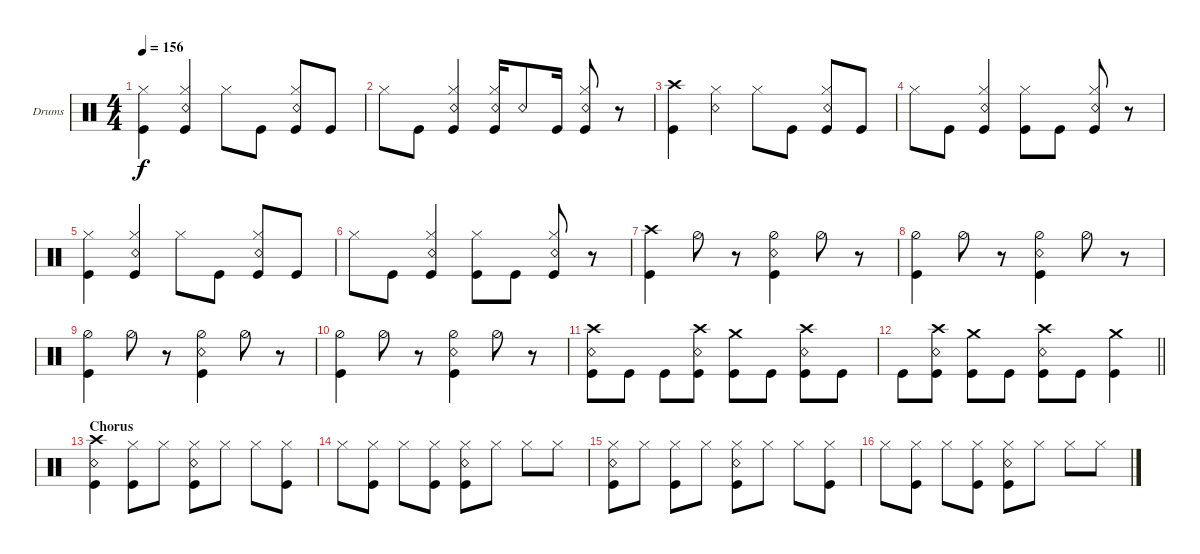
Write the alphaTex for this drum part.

\bracketExtendMode groupsimilarinstruments
\firstSystemTrackNameOrientation horizontal
\otherSystemsTrackNameOrientation horizontal
\track ("Drums" "Drums") {instrument percussion}
\staff {score}
\articulation defaults
\ts (4 4)
\tempo 156
\clef neutral
\ks c
("Kick (hit)" "Hi-Hat (closed)").4{dy f} ("Hi-Hat (closed)" "Snare (rim shot)" "Kick (hit)").4 "Hi-Hat (closed)".8 "Kick (hit)".8 ("Hi-Hat (closed)" "Snare (rim shot)" "Kick (hit)").8 "Kick (hit)".8 |
"Hi-Hat (closed)".8 "Kick (hit)".8 ("Hi-Hat (closed)" "Snare (rim shot)" "Kick (hit)").4 ("Hi-Hat (closed)" "Kick (hit)" "Snare (rim shot)").16 "Snare (rim shot)".8 "Kick (hit)".16 ("Hi-Hat (closed)" "Snare (rim shot)" "Kick (hit)").8 r.8 |
("Kick (hit)" "Crash high (hit)").4 ("Hi-Hat (closed)" "Snare (rim shot)").4 "Hi-Hat (closed)".8 "Kick (hit)".8 ("Hi-Hat (closed)" "Snare (rim shot)" "Kick (hit)").8 "Kick (hit)".8 |
"Hi-Hat (closed)".8 "Kick (hit)".8 ("Hi-Hat (closed)" "Snare (rim shot)" "Kick (hit)").4 ("Hi-Hat (closed)" "Kick (hit)").8 "Kick (hit)".8 ("Hi-Hat (closed)" "Snare (rim shot)" "Kick (hit)").8 r.8 |
("Kick (hit)" "Hi-Hat (closed)").4 ("Hi-Hat (closed)" "Snare (rim shot)" "Kick (hit)").4 "Hi-Hat (closed)".8 "Kick (hit)".8 ("Hi-Hat (closed)" "Snare (rim shot)" "Kick (hit)").8 "Kick (hit)".8 |
"Hi-Hat (closed)".8 "Kick (hit)".8 ("Hi-Hat (closed)" "Snare (rim shot)" "Kick (hit)").4 ("Hi-Hat (closed)" "Kick (hit)").8 "Kick (hit)".8 ("Hi-Hat (closed)" "Snare (rim shot)" "Kick (hit)").8 r.8 |
("Kick (hit)" "Crash high (hit)").4 "Hi-Hat (half)".8 r.8 ("Hi-Hat (half)" "Snare (rim shot)" "Kick (hit)").4 "Hi-Hat (half)".8 r.8 |
("Kick (hit)" "Hi-Hat (half)").4 "Hi-Hat (half)".8 r.8 ("Hi-Hat (half)" "Snare (rim shot)" "Kick (hit)").4 "Hi-Hat (half)".8 r.8 |
("Kick (hit)" "Hi-Hat (half)").4 "Hi-Hat (half)".8 r.8 ("Hi-Hat (half)" "Snare (rim shot)" "Kick (hit)").4 "Hi-Hat (half)".8 r.8 |
("Kick (hit)" "Hi-Hat (half)").4 "Hi-Hat (half)".8 r.8 ("Hi-Hat (half)" "Snare (rim shot)" "Kick (hit)").4 "Hi-Hat (half)".8 r.8 |
("Kick (hit)" "Snare (rim shot)" "Crash high (hit)").8 "Kick (hit)".8 "Kick (hit)".8 ("Snare (rim shot)" "Crash high (hit)" "Kick (hit)").8 ("Crash medium (hit)" "Kick (hit)").8 "Kick (hit)".8 ("Kick (hit)" "Snare (rim shot)" "Crash high (hit)").8 "Kick (hit)".8 |
\barLineRight lightlight "Kick (hit)".8
("Snare (rim shot)" "Crash high (hit)" "Kick (hit)").8 ("Crash medium (hit)" "Kick (hit)").8 "Kick (hit)".8 ("Kick (hit)" "Snare (rim shot)" "Crash high (hit)").8 "Kick (hit)".8 ("Kick (hit)" "Crash medium (hit)").4 |
\section ("" "Chorus")
("Kick (hit)" "Snare (rim shot)" "Crash high (hit)").4 ("Kick (hit)" "Hi-Hat (closed)").8 "Hi-Hat (closed)".8 ("Kick (hit)" "Snare (rim shot)" "Hi-Hat (closed)").8 "Hi-Hat (closed)".8 "Hi-Hat (closed)".8 ("Kick (hit)" "Hi-Hat (closed)").8 |
"Hi-Hat (closed)".8 ("Kick (hit)" "Hi-Hat (closed)").8 "Hi-Hat (closed)".8 ("Kick (hit)" "Hi-Hat (closed)").8 ("Kick (hit)" "Snare (rim shot)" "Hi-Hat (closed)").8 "Hi-Hat (closed)".8 "Hi-Hat (closed)".8 "Hi-Hat (closed)".8 |
("Kick (hit)" "Snare (rim shot)" "Hi-Hat (closed)").8 "Hi-Hat (closed)".8 ("Kick (hit)" "Hi-Hat (closed)").8 "Hi-Hat (closed)".8 ("Kick (hit)" "Snare (rim shot)" "Hi-Hat (closed)").8 "Hi-Hat (closed)".8 "Hi-Hat (closed)".8 ("Kick (hit)" "Hi-Hat (closed)").8 |
"Hi-Hat (closed)".8 ("Kick (hit)" "Hi-Hat (closed)").8 "Hi-Hat (closed)".8 ("Kick (hit)" "Hi-Hat (closed)").8 ("Kick (hit)" "Snare (rim shot)" "Hi-Hat (closed)").8 "Hi-Hat (closed)".8 "Hi-Hat (closed)".8 "Hi-Hat (closed)".8
